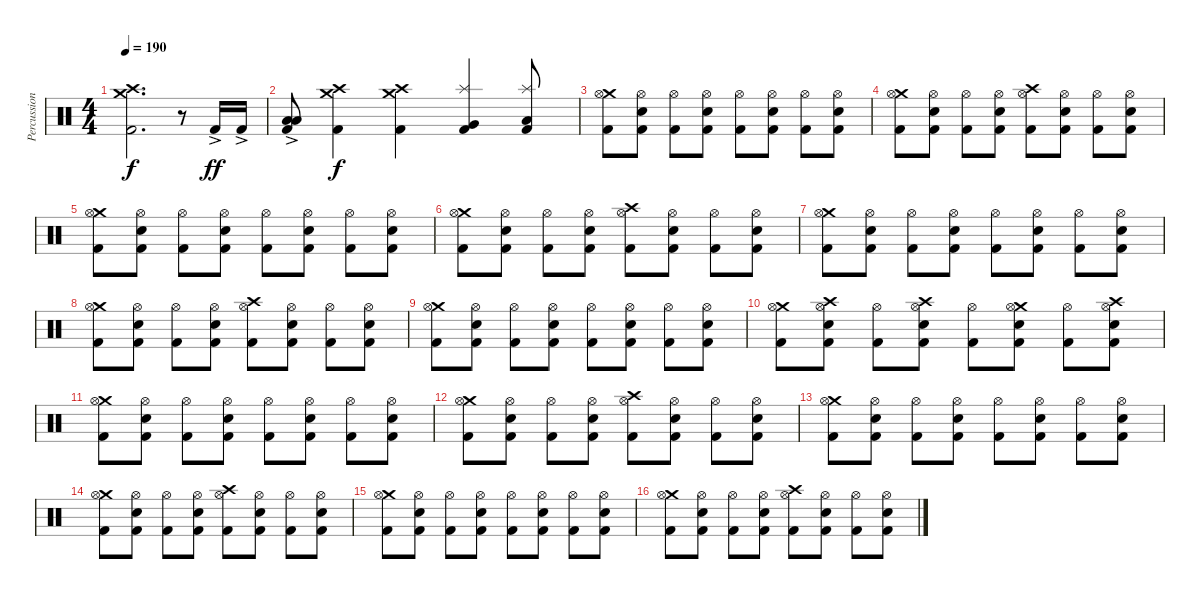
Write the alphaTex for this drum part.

\track ("Percussion" "Percussion") {instrument percussion}
\staff {score}
\articulation defaults
\ts (4 4)
\tempo 190
\clef neutral
\ks c
("Crash high (hit)" "Crash medium (hit)" "Kick (hit) 2").2{d dy f} r.8 "Kick (hit) 2"{ac}.16{dy ff} "Kick (hit) 2"{ac}.16 |
("Low Tom (hit)"{ac} "Low Tom (hit)"{ac} "Kick (hit) 2"{ac}).8 ("Crash medium (hit)" "Crash high (hit)" "Kick (hit) 2").4{dy f} ("Crash medium (hit)" "Crash high (hit)" "Kick (hit) 2").4 ("Splash (hit)" "Very Low Tom (hit)" "Kick (hit) 2").4 ("Splash (hit)" "Low Floor Tom (hit)" "Kick (hit) 2").8 |
("Crash medium (hit)" "Hi-Hat (open)" "Kick (hit) 2").8 ("Hi-Hat (open)" "Snare (hit) 2" "Kick (hit) 2").8 ("Hi-Hat (open)" "Kick (hit) 2").8 ("Hi-Hat (open)" "Snare (hit) 2" "Kick (hit) 2").8 ("Hi-Hat (open)" "Kick (hit) 2").8 ("Hi-Hat (open)" "Snare (hit) 2" "Kick (hit) 2").8 ("Hi-Hat (open)" "Kick (hit) 2").8 ("Hi-Hat (open)" "Snare (hit) 2" "Kick (hit) 2").8 |
("Crash medium (hit)" "Hi-Hat (open)" "Kick (hit) 2").8 ("Hi-Hat (open)" "Snare (hit) 2" "Kick (hit) 2").8 ("Hi-Hat (open)" "Kick (hit) 2").8 ("Hi-Hat (open)" "Snare (hit) 2" "Kick (hit) 2").8 ("Crash high (hit)" "Hi-Hat (open)" "Kick (hit) 2").8 ("Hi-Hat (open)" "Snare (hit) 2" "Kick (hit) 2").8 ("Hi-Hat (open)" "Kick (hit) 2").8 ("Hi-Hat (open)" "Snare (hit) 2" "Kick (hit) 2").8 |
("Crash medium (hit)" "Hi-Hat (open)" "Kick (hit) 2").8 ("Hi-Hat (open)" "Snare (hit) 2" "Kick (hit) 2").8 ("Hi-Hat (open)" "Kick (hit) 2").8 ("Hi-Hat (open)" "Snare (hit) 2" "Kick (hit) 2").8 ("Hi-Hat (open)" "Kick (hit) 2").8 ("Hi-Hat (open)" "Snare (hit) 2" "Kick (hit) 2").8 ("Hi-Hat (open)" "Kick (hit) 2").8 ("Hi-Hat (open)" "Snare (hit) 2" "Kick (hit) 2").8 |
("Crash medium (hit)" "Hi-Hat (open)" "Kick (hit) 2").8 ("Hi-Hat (open)" "Snare (hit) 2" "Kick (hit) 2").8 ("Hi-Hat (open)" "Kick (hit) 2").8 ("Hi-Hat (open)" "Snare (hit) 2" "Kick (hit) 2").8 ("Crash high (hit)" "Hi-Hat (open)" "Kick (hit) 2").8 ("Hi-Hat (open)" "Snare (hit) 2" "Kick (hit) 2").8 ("Hi-Hat (open)" "Kick (hit) 2").8 ("Hi-Hat (open)" "Snare (hit) 2" "Kick (hit) 2").8 |
("Crash medium (hit)" "Hi-Hat (open)" "Kick (hit) 2").8 ("Hi-Hat (open)" "Snare (hit) 2" "Kick (hit) 2").8 ("Hi-Hat (open)" "Kick (hit) 2").8 ("Hi-Hat (open)" "Snare (hit) 2" "Kick (hit) 2").8 ("Hi-Hat (open)" "Kick (hit) 2").8 ("Hi-Hat (open)" "Snare (hit) 2" "Kick (hit) 2").8 ("Hi-Hat (open)" "Kick (hit) 2").8 ("Hi-Hat (open)" "Snare (hit) 2" "Kick (hit) 2").8 |
("Crash medium (hit)" "Hi-Hat (open)" "Kick (hit) 2").8 ("Hi-Hat (open)" "Snare (hit) 2" "Kick (hit) 2").8 ("Hi-Hat (open)" "Kick (hit) 2").8 ("Hi-Hat (open)" "Snare (hit) 2" "Kick (hit) 2").8 ("Crash high (hit)" "Hi-Hat (open)" "Kick (hit) 2").8 ("Hi-Hat (open)" "Snare (hit) 2" "Kick (hit) 2").8 ("Hi-Hat (open)" "Kick (hit) 2").8 ("Hi-Hat (open)" "Snare (hit) 2" "Kick (hit) 2").8 |
("Crash medium (hit)" "Hi-Hat (open)" "Kick (hit) 2").8 ("Hi-Hat (open)" "Snare (hit) 2" "Kick (hit) 2").8 ("Hi-Hat (open)" "Kick (hit) 2").8 ("Hi-Hat (open)" "Snare (hit) 2" "Kick (hit) 2").8 ("Hi-Hat (open)" "Kick (hit) 2").8 ("Hi-Hat (open)" "Snare (hit) 2" "Kick (hit) 2").8 ("Hi-Hat (open)" "Kick (hit) 2").8 ("Hi-Hat (open)" "Snare (hit) 2" "Kick (hit) 2").8 |
("Crash medium (hit)" "Hi-Hat (open)" "Kick (hit) 2").8 ("Crash high (hit)" "Hi-Hat (open)" "Snare (hit) 2" "Kick (hit) 2").8 ("Hi-Hat (open)" "Kick (hit) 2").8 ("Crash high (hit)" "Hi-Hat (open)" "Snare (hit) 2" "Kick (hit) 2").8 ("Hi-Hat (open)" "Kick (hit) 2").8 ("Crash medium (hit)" "Hi-Hat (open)" "Snare (hit) 2" "Kick (hit) 2").8 ("Hi-Hat (open)" "Kick (hit) 2").8 ("Crash high (hit)" "Hi-Hat (open)" "Snare (hit) 2" "Kick (hit) 2").8 |
("Crash medium (hit)" "Hi-Hat (open)" "Kick (hit) 2").8 ("Hi-Hat (open)" "Snare (hit) 2" "Kick (hit) 2").8 ("Hi-Hat (open)" "Kick (hit) 2").8 ("Hi-Hat (open)" "Snare (hit) 2" "Kick (hit) 2").8 ("Hi-Hat (open)" "Kick (hit) 2").8 ("Hi-Hat (open)" "Snare (hit) 2" "Kick (hit) 2").8 ("Hi-Hat (open)" "Kick (hit) 2").8 ("Hi-Hat (open)" "Snare (hit) 2" "Kick (hit) 2").8 |
("Crash medium (hit)" "Hi-Hat (open)" "Kick (hit) 2").8 ("Hi-Hat (open)" "Snare (hit) 2" "Kick (hit) 2").8 ("Hi-Hat (open)" "Kick (hit) 2").8 ("Hi-Hat (open)" "Snare (hit) 2" "Kick (hit) 2").8 ("Crash high (hit)" "Hi-Hat (open)" "Kick (hit) 2").8 ("Hi-Hat (open)" "Snare (hit) 2" "Kick (hit) 2").8 ("Hi-Hat (open)" "Kick (hit) 2").8 ("Hi-Hat (open)" "Snare (hit) 2" "Kick (hit) 2").8 |
("Crash medium (hit)" "Hi-Hat (open)" "Kick (hit) 2").8 ("Hi-Hat (open)" "Snare (hit) 2" "Kick (hit) 2").8 ("Hi-Hat (open)" "Kick (hit) 2").8 ("Hi-Hat (open)" "Snare (hit) 2" "Kick (hit) 2").8 ("Hi-Hat (open)" "Kick (hit) 2").8 ("Hi-Hat (open)" "Snare (hit) 2" "Kick (hit) 2").8 ("Hi-Hat (open)" "Kick (hit) 2").8 ("Hi-Hat (open)" "Snare (hit) 2" "Kick (hit) 2").8 |
("Crash medium (hit)" "Hi-Hat (open)" "Kick (hit) 2").8 ("Hi-Hat (open)" "Snare (hit) 2" "Kick (hit) 2").8 ("Hi-Hat (open)" "Kick (hit) 2").8 ("Hi-Hat (open)" "Snare (hit) 2" "Kick (hit) 2").8 ("Crash high (hit)" "Hi-Hat (open)" "Kick (hit) 2").8 ("Hi-Hat (open)" "Snare (hit) 2" "Kick (hit) 2").8 ("Hi-Hat (open)" "Kick (hit) 2").8 ("Hi-Hat (open)" "Snare (hit) 2" "Kick (hit) 2").8 |
("Crash medium (hit)" "Hi-Hat (open)" "Kick (hit) 2").8 ("Hi-Hat (open)" "Snare (hit) 2" "Kick (hit) 2").8 ("Hi-Hat (open)" "Kick (hit) 2").8 ("Hi-Hat (open)" "Snare (hit) 2" "Kick (hit) 2").8 ("Hi-Hat (open)" "Kick (hit) 2").8 ("Hi-Hat (open)" "Snare (hit) 2" "Kick (hit) 2").8 ("Hi-Hat (open)" "Kick (hit) 2").8 ("Hi-Hat (open)" "Snare (hit) 2" "Kick (hit) 2").8 |
("Crash medium (hit)" "Hi-Hat (open)" "Kick (hit) 2").8 ("Hi-Hat (open)" "Snare (hit) 2" "Kick (hit) 2").8 ("Hi-Hat (open)" "Kick (hit) 2").8 ("Hi-Hat (open)" "Snare (hit) 2" "Kick (hit) 2").8 ("Crash high (hit)" "Hi-Hat (open)" "Kick (hit) 2").8 ("Hi-Hat (open)" "Snare (hit) 2" "Kick (hit) 2").8 ("Hi-Hat (open)" "Kick (hit) 2").8 ("Hi-Hat (open)" "Snare (hit) 2" "Kick (hit) 2").8
